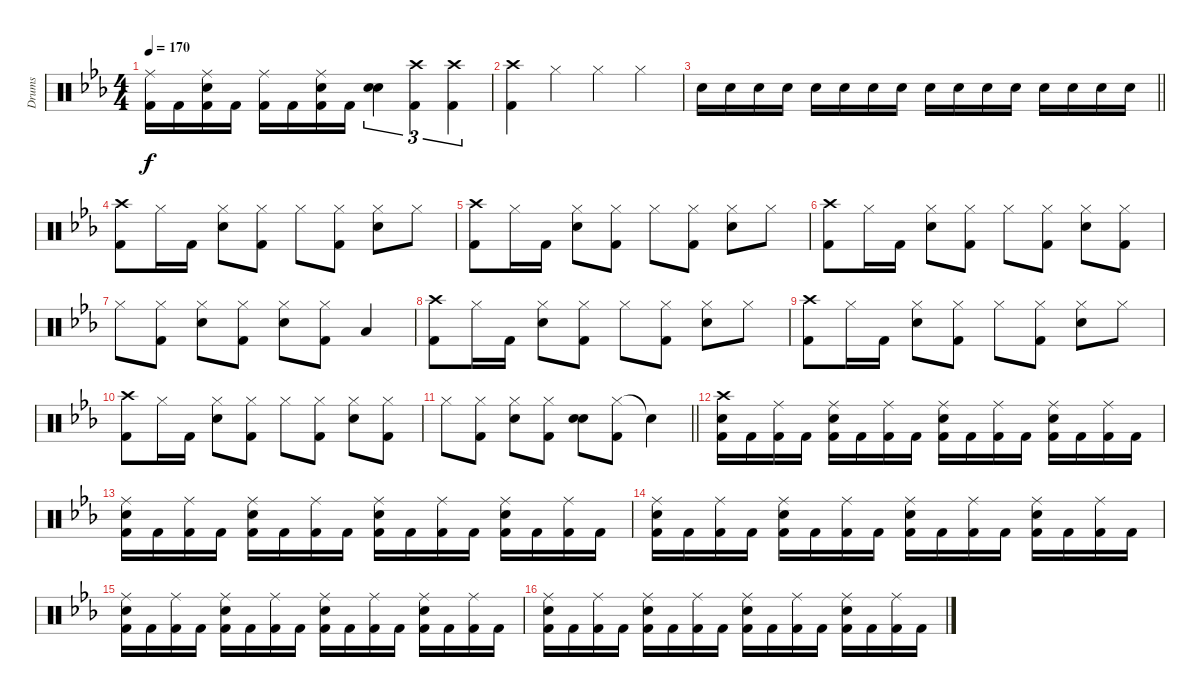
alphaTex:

\track ("Drums" "Drums") {instrument percussion}
\staff {score}
\articulation defaults
\ts (4 4)
\tempo 170
\clef neutral
\ks eb
("Ride (middle)" "Kick (hit) 2").16{dy f} "Kick (hit) 2".16 ("Ride (middle)" "Snare (hit) 2" "Kick (hit) 2").16 "Kick (hit) 2".16 ("Ride (middle)" "Kick (hit) 2").16 "Kick (hit) 2".16 ("Ride (middle)" "Snare (hit) 2" "Kick (hit) 2").16 "Kick (hit) 2".16 ("Snare (hit) 2" "Snare (hit) 2").4{tu (3 2)} ("Crash high (hit)" "Kick (hit) 2").4{tu (3 2)} ("Crash high (hit)" "Kick (hit) 2").4{tu (3 2)} |
("Crash high (hit)" "Kick (hit) 2").4 "Hi-Hat (closed)".4 "Hi-Hat (closed)".4 "Hi-Hat (closed)".4 |
\barLineRight lightlight "Snare (hit) 2".16 "Snare (hit) 2".16 "Snare (hit) 2".16 "Snare (hit) 2".16 "Snare (hit) 2".16 "Snare (hit) 2".16 "Snare (hit) 2".16 "Snare (hit) 2".16 "Snare (hit) 2".16 "Snare (hit) 2".16 "Snare (hit) 2".16 "Snare (hit) 2".16 "Snare (hit) 2".16 "Snare (hit) 2".16 "Snare (hit) 2".16 "Snare (hit) 2".16
|
("Crash high (hit)" "Kick (hit) 2").8 "Hi-Hat (closed)".16 "Kick (hit) 2".16 ("Hi-Hat (closed)" "Snare (hit) 2").8 ("Hi-Hat (closed)" "Kick (hit) 2").8 "Hi-Hat (closed)".8 ("Hi-Hat (closed)" "Kick (hit) 2").8 ("Hi-Hat (closed)" "Snare (hit) 2").8 "Hi-Hat (closed)".8 |
("Crash high (hit)" "Kick (hit) 2").8 "Hi-Hat (closed)".16 "Kick (hit) 2".16 ("Hi-Hat (closed)" "Snare (hit) 2").8 ("Hi-Hat (closed)" "Kick (hit) 2").8 "Hi-Hat (closed)".8 ("Hi-Hat (closed)" "Kick (hit) 2").8 ("Hi-Hat (closed)" "Snare (hit) 2").8 "Hi-Hat (closed)".8 |
("Crash high (hit)" "Kick (hit) 2").8 "Hi-Hat (closed)".16 "Kick (hit) 2".16 ("Hi-Hat (closed)" "Snare (hit) 2").8 ("Hi-Hat (closed)" "Kick (hit) 2").8 "Hi-Hat (closed)".8 ("Hi-Hat (closed)" "Kick (hit) 2").8 ("Hi-Hat (closed)" "Snare (hit) 2").8 ("Hi-Hat (closed)" "Kick (hit) 2").8 |
"Hi-Hat (closed)".8 ("Hi-Hat (closed)" "Kick (hit) 2").8 ("Hi-Hat (closed)" "Snare (hit) 2").8 ("Hi-Hat (closed)" "Kick (hit) 2").8 ("Hi-Hat (closed)" "Snare (hit) 2").8 ("Hi-Hat (closed)" "Kick (hit) 2").8 "Low Floor Tom (hit)".4 |
("Crash high (hit)" "Kick (hit) 2").8 "Hi-Hat (closed)".16 "Kick (hit) 2".16 ("Hi-Hat (closed)" "Snare (hit) 2").8 ("Hi-Hat (closed)" "Kick (hit) 2").8 "Hi-Hat (closed)".8 ("Hi-Hat (closed)" "Kick (hit) 2").8 ("Hi-Hat (closed)" "Snare (hit) 2").8 "Hi-Hat (closed)".8 |
("Crash high (hit)" "Kick (hit) 2").8 "Hi-Hat (closed)".16 "Kick (hit) 2".16 ("Hi-Hat (closed)" "Snare (hit) 2").8 ("Hi-Hat (closed)" "Kick (hit) 2").8 "Hi-Hat (closed)".8 ("Hi-Hat (closed)" "Kick (hit) 2").8 ("Hi-Hat (closed)" "Snare (hit) 2").8 "Hi-Hat (closed)".8 |
("Crash high (hit)" "Kick (hit) 2").8 "Hi-Hat (closed)".16 "Kick (hit) 2".16 ("Hi-Hat (closed)" "Snare (hit) 2").8 ("Hi-Hat (closed)" "Kick (hit) 2").8 "Hi-Hat (closed)".8 ("Hi-Hat (closed)" "Kick (hit) 2").8 ("Hi-Hat (closed)" "Snare (hit) 2").8 ("Hi-Hat (closed)" "Kick (hit) 2").8 |
\barLineRight lightlight "Hi-Hat (closed)".8
("Hi-Hat (closed)" "Kick (hit) 2").8 ("Hi-Hat (closed)" "Snare (hit) 2").8 ("Hi-Hat (closed)" "Kick (hit) 2").8 ("Snare (hit) 2" "Snare (hit) 2").8 ("Hi-Hat (closed)" "Kick (hit) 2").8 "Snare (hit)"{t}.4 |
("Crash high (hit)" "Snare (hit) 2" "Kick (hit) 2").16 "Kick (hit) 2".16 ("Ride (middle)" "Kick (hit) 2").16 "Kick (hit) 2".16 ("Ride (middle)" "Snare (hit) 2" "Kick (hit) 2").16 "Kick (hit) 2".16 ("Ride (middle)" "Kick (hit) 2").16 "Kick (hit) 2".16 ("Ride (middle)" "Snare (hit) 2" "Kick (hit) 2").16 "Kick (hit) 2".16 ("Ride (middle)" "Kick (hit) 2").16 "Kick (hit) 2".16 ("Ride (middle)" "Snare (hit) 2" "Kick (hit) 2").16 "Kick (hit) 2".16 ("Ride (middle)" "Kick (hit) 2").16 "Kick (hit) 2".16 |
("Ride (middle)" "Snare (hit) 2" "Kick (hit) 2").16 "Kick (hit) 2".16 ("Ride (middle)" "Kick (hit) 2").16 "Kick (hit) 2".16 ("Ride (middle)" "Snare (hit) 2" "Kick (hit) 2").16 "Kick (hit) 2".16 ("Ride (middle)" "Kick (hit) 2").16 "Kick (hit) 2".16 ("Ride (middle)" "Snare (hit) 2" "Kick (hit) 2").16 "Kick (hit) 2".16 ("Ride (middle)" "Kick (hit) 2").16 "Kick (hit) 2".16 ("Ride (middle)" "Snare (hit) 2" "Kick (hit) 2").16 "Kick (hit) 2".16 ("Ride (middle)" "Kick (hit) 2").16 "Kick (hit) 2".16 |
("Ride (middle)" "Snare (hit) 2" "Kick (hit) 2").16 "Kick (hit) 2".16 ("Ride (middle)" "Kick (hit) 2").16 "Kick (hit) 2".16 ("Ride (middle)" "Snare (hit) 2" "Kick (hit) 2").16 "Kick (hit) 2".16 ("Ride (middle)" "Kick (hit) 2").16 "Kick (hit) 2".16 ("Ride (middle)" "Snare (hit) 2" "Kick (hit) 2").16 "Kick (hit) 2".16 ("Ride (middle)" "Kick (hit) 2").16 "Kick (hit) 2".16 ("Ride (middle)" "Snare (hit) 2" "Kick (hit) 2").16 "Kick (hit) 2".16 ("Ride (middle)" "Kick (hit) 2").16 "Kick (hit) 2".16 |
("Ride (middle)" "Snare (hit) 2" "Kick (hit) 2").16 "Kick (hit) 2".16 ("Ride (middle)" "Kick (hit) 2").16 "Kick (hit) 2".16 ("Ride (middle)" "Snare (hit) 2" "Kick (hit) 2").16 "Kick (hit) 2".16 ("Ride (middle)" "Kick (hit) 2").16 "Kick (hit) 2".16 ("Ride (middle)" "Snare (hit) 2" "Kick (hit) 2").16 "Kick (hit) 2".16 ("Ride (middle)" "Kick (hit) 2").16 "Kick (hit) 2".16 ("Ride (middle)" "Snare (hit) 2" "Kick (hit) 2").16 "Kick (hit) 2".16 ("Ride (middle)" "Kick (hit) 2").16 "Kick (hit) 2".16 |
("Ride (middle)" "Snare (hit) 2" "Kick (hit) 2").16 "Kick (hit) 2".16 ("Ride (middle)" "Kick (hit) 2").16 "Kick (hit) 2".16 ("Ride (middle)" "Snare (hit) 2" "Kick (hit) 2").16 "Kick (hit) 2".16 ("Ride (middle)" "Kick (hit) 2").16 "Kick (hit) 2".16 ("Ride (middle)" "Snare (hit) 2" "Kick (hit) 2").16 "Kick (hit) 2".16 ("Ride (middle)" "Kick (hit) 2").16 "Kick (hit) 2".16 ("Ride (middle)" "Snare (hit) 2" "Kick (hit) 2").16 "Kick (hit) 2".16 ("Ride (middle)" "Kick (hit) 2").16 "Kick (hit) 2".16
